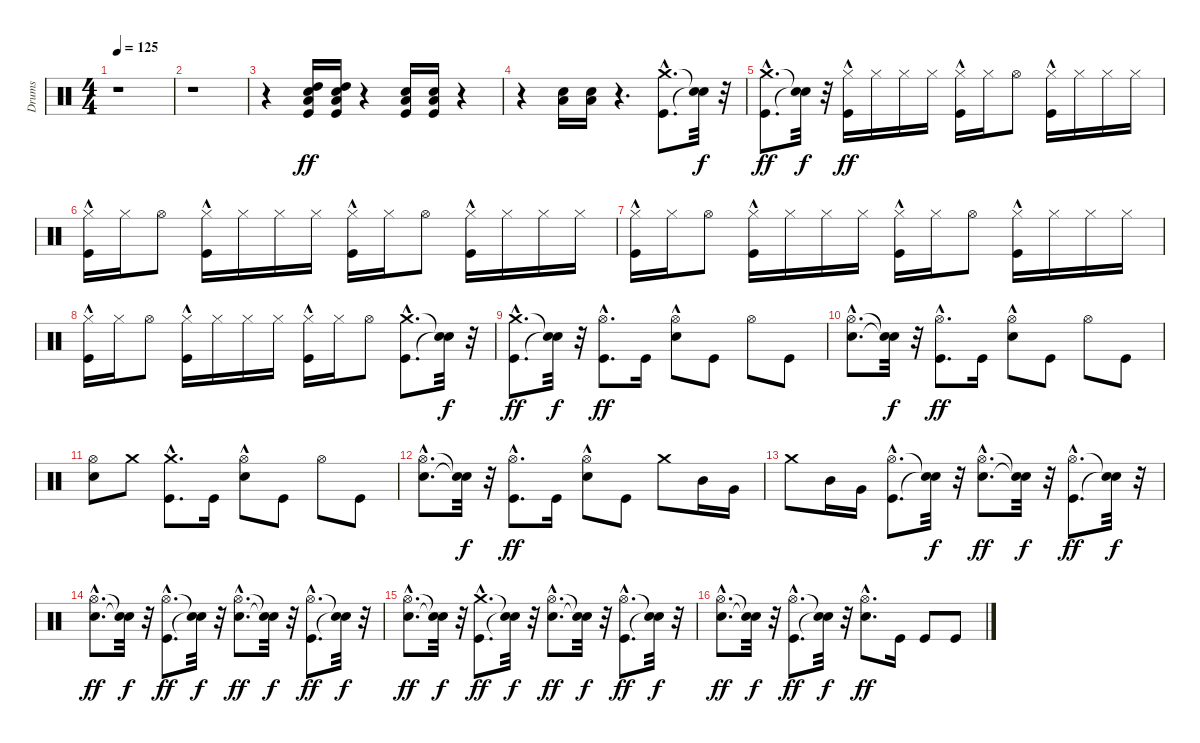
\track ("Drums" "Drums") {instrument percussion}
\staff {score}
\articulation defaults
\ts (4 4)
\tempo 125
\clef neutral
\ks c
r.1{dy ff} |
r.1 |
r.4 ("Kick (hit)" "Electric Snare (hit)" "Low Tom (hit)" "High Tom (hit)").16 ("Kick (hit)" "Electric Snare (hit)" "Low Tom (hit)" "High Tom (hit)").16 r.4 ("Kick (hit)" "Electric Snare (hit)" "Low Tom (hit)").16 ("Kick (hit)" "Electric Snare (hit)" "Low Tom (hit)").16 r.4 |
r.4 ("Electric Snare (hit)" "Low Tom (hit)").16 ("Electric Snare (hit)" "Low Tom (hit)").16 r.4{d} ("Kick (hit)"{hac} "Crash medium (hit)"{hac}).8{d} ("Snare (hit)"{t} "Snare (hit)"{t}).32{dy f} r.32 |
("Kick (hit)"{hac} "Crash medium (hit)"{hac}).8{d dy ff} ("Snare (hit)"{t} "Snare (hit)"{t}).32{dy f} r.32 ("Kick (hit)"{hac} "Hi-Hat (closed)").16{dy ff} "Hi-Hat (closed)".16 "Hi-Hat (closed)".16 "Hi-Hat (closed)".16 ("Kick (hit)"{hac} "Hi-Hat (closed)").16 "Hi-Hat (closed)".16 "Hi-Hat (open)".8 ("Kick (hit)"{hac} "Hi-Hat (closed)").16 "Hi-Hat (closed)".16 "Hi-Hat (closed)".16 "Hi-Hat (closed)".16 |
("Kick (hit)"{hac} "Hi-Hat (closed)").16 "Hi-Hat (closed)".16 "Hi-Hat (open)".8 ("Kick (hit)"{hac} "Hi-Hat (closed)").16 "Hi-Hat (closed)".16 "Hi-Hat (closed)".16 "Hi-Hat (closed)".16 ("Kick (hit)"{hac} "Hi-Hat (closed)").16 "Hi-Hat (closed)".16 "Hi-Hat (open)".8 ("Kick (hit)"{hac} "Hi-Hat (closed)").16 "Hi-Hat (closed)".16 "Hi-Hat (closed)".16 "Hi-Hat (closed)".16 |
("Kick (hit)"{hac} "Hi-Hat (closed)").16 "Hi-Hat (closed)".16 "Hi-Hat (open)".8 ("Kick (hit)"{hac} "Hi-Hat (closed)").16 "Hi-Hat (closed)".16 "Hi-Hat (closed)".16 "Hi-Hat (closed)".16 ("Kick (hit)"{hac} "Hi-Hat (closed)").16 "Hi-Hat (closed)".16 "Hi-Hat (open)".8 ("Kick (hit)"{hac} "Hi-Hat (closed)").16 "Hi-Hat (closed)".16 "Hi-Hat (closed)".16 "Hi-Hat (closed)".16 |
("Kick (hit)"{hac} "Hi-Hat (closed)").16 "Hi-Hat (closed)".16 "Hi-Hat (open)".8 ("Kick (hit)"{hac} "Hi-Hat (closed)").16 "Hi-Hat (closed)".16 "Hi-Hat (closed)".16 "Hi-Hat (closed)".16 ("Kick (hit)"{hac} "Hi-Hat (closed)").16 "Hi-Hat (closed)".16 "Hi-Hat (open)".8 ("Kick (hit)"{hac} "Crash medium (hit)"{hac}).8{d} ("Snare (hit)"{t} "Snare (hit)"{t}).32{dy f} r.32 |
("Kick (hit)"{hac} "Crash medium (hit)"{hac}).8{d dy ff} ("Snare (hit)"{t} "Snare (hit)"{t}).32{dy f} r.32 ("Kick (hit)"{hac} "Hi-Hat (open)"{hac}).8{d dy ff} "Kick (hit)".16 ("Electric Snare (hit)" "Hi-Hat (open)"{hac}).8 "Kick (hit)".8 "Hi-Hat (open)".8 "Kick (hit)".8 |
("Electric Snare (hit)"{hac} "Hi-Hat (open)"{hac}).8{d} ("Snare (hit)"{t} "Snare (hit)"{t}).32{dy f} r.32 ("Kick (hit)"{hac} "Hi-Hat (open)"{hac}).8{d dy ff} "Kick (hit)".16 ("Electric Snare (hit)" "Hi-Hat (open)"{hac}).8 "Kick (hit)".8 "Hi-Hat (open)".8 "Kick (hit)".8 |
("Electric Snare (hit)" "Hi-Hat (open)").8 "Crash medium (hit)".8 ("Kick (hit)"{hac} "Crash medium (hit)"{hac}).8{d} "Kick (hit)".16 ("Electric Snare (hit)" "Hi-Hat (open)"{hac}).8 "Kick (hit)".8 "Hi-Hat (open)".8 "Kick (hit)".8 |
("Electric Snare (hit)"{hac} "Hi-Hat (open)"{hac}).8{d} ("Snare (hit)"{t} "Snare (hit)"{t}).32{dy f} r.32 ("Kick (hit)"{hac} "Hi-Hat (open)"{hac}).8{d dy ff} "Kick (hit)".16 ("Electric Snare (hit)" "Hi-Hat (open)"{hac}).8 "Kick (hit)".8 "Crash medium (hit)".8 "Mid Tom (hit)".16 "Very Low Tom (hit)".16 |
"Crash medium (hit)".8 "Mid Tom (hit)".16 "Very Low Tom (hit)".16 ("Kick (hit)"{hac} "Hi-Hat (open)"{hac}).8{d} ("Snare (hit)"{t} "Snare (hit)"{t}).32{dy f} r.32 ("Electric Snare (hit)"{hac} "Hi-Hat (open)"{hac}).8{d dy ff} ("Snare (hit)"{t} "Snare (hit)"{t}).32{dy f} r.32 ("Kick (hit)"{hac} "Hi-Hat (open)"{hac}).8{d dy ff} ("Snare (hit)"{t} "Snare (hit)"{t}).32{dy f} r.32 |
("Electric Snare (hit)"{hac} "Hi-Hat (open)"{hac}).8{d dy ff} ("Snare (hit)"{t} "Snare (hit)"{t}).32{dy f} r.32 ("Kick (hit)"{hac} "Hi-Hat (open)"{hac}).8{d dy ff} ("Snare (hit)"{t} "Snare (hit)"{t}).32{dy f} r.32 ("Electric Snare (hit)"{hac} "Hi-Hat (open)"{hac}).8{d dy ff} ("Snare (hit)"{t} "Snare (hit)"{t}).32{dy f} r.32 ("Kick (hit)"{hac} "Hi-Hat (open)"{hac}).8{d dy ff} ("Snare (hit)"{t} "Snare (hit)"{t}).32{dy f} r.32 |
("Electric Snare (hit)"{hac} "Hi-Hat (open)"{hac}).8{d dy ff} ("Snare (hit)"{t} "Snare (hit)"{t}).32{dy f} r.32 ("Kick (hit)"{hac} "Crash medium (hit)"{hac}).8{d dy ff} ("Snare (hit)"{t} "Snare (hit)"{t}).32{dy f} r.32 ("Electric Snare (hit)"{hac} "Hi-Hat (open)"{hac}).8{d dy ff} ("Snare (hit)"{t} "Snare (hit)"{t}).32{dy f} r.32 ("Kick (hit)"{hac} "Hi-Hat (open)"{hac}).8{d dy ff} ("Snare (hit)"{t} "Snare (hit)"{t}).32{dy f} r.32 |
("Electric Snare (hit)"{hac} "Hi-Hat (open)"{hac}).8{d dy ff} ("Snare (hit)"{t} "Snare (hit)"{t}).32{dy f} r.32 ("Kick (hit)"{hac} "Hi-Hat (open)"{hac}).8{d dy ff} ("Snare (hit)"{t} "Snare (hit)"{t}).32{dy f} r.32 ("Electric Snare (hit)"{hac} "Hi-Hat (open)"{hac}).8{d dy ff} "Kick (hit)".16 "Kick (hit)".8 "Kick (hit)".8
